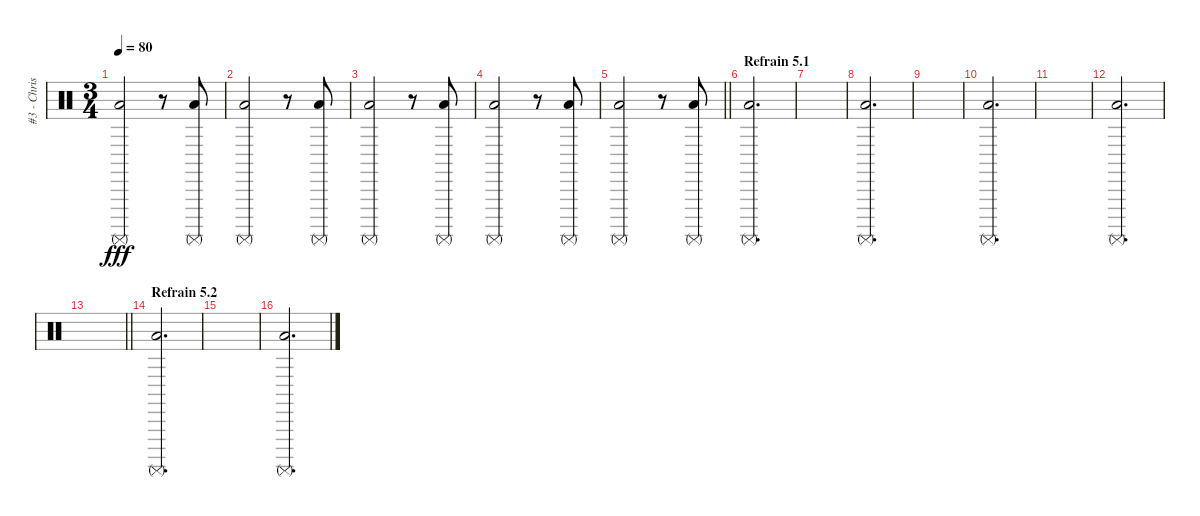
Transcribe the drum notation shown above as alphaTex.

\track ("#3 - Chris Fehn" "#3 - Chris") {instrument percussion}
\staff {score}
\articulation defaults
\ts (3 4)
\tempo 80
\clef neutral
\ks c
("Low Floor Tom (hit)" "Surdo (mute)").2{dy fff} r.8 ("Low Floor Tom (hit)" "Surdo (mute)").8 |
("Low Floor Tom (hit)" "Surdo (mute)").2 r.8 ("Low Floor Tom (hit)" "Surdo (mute)").8 |
("Low Floor Tom (hit)" "Surdo (mute)").2 r.8 ("Low Floor Tom (hit)" "Surdo (mute)").8 |
("Low Floor Tom (hit)" "Surdo (mute)").2 r.8 ("Low Floor Tom (hit)" "Surdo (mute)").8 |
\barLineRight lightlight
("Low Floor Tom (hit)" "Surdo (mute)").2 r.8 ("Low Floor Tom (hit)" "Surdo (mute)").8 |
\section ("" "Refrain 5.1")
("Low Floor Tom (hit)" "Surdo (mute)").2{d volume 16} |
|
("Low Floor Tom (hit)" "Surdo (mute)").2{d volume 16} |
|
("Low Floor Tom (hit)" "Surdo (mute)").2{d volume 16} |
|
("Low Floor Tom (hit)" "Surdo (mute)").2{d volume 16} |
\barLineRight lightlight
|
\section ("" "Refrain 5.2")
("Low Floor Tom (hit)" "Surdo (mute)").2{d volume 16} |
|
("Low Floor Tom (hit)" "Surdo (mute)").2{d volume 16}
